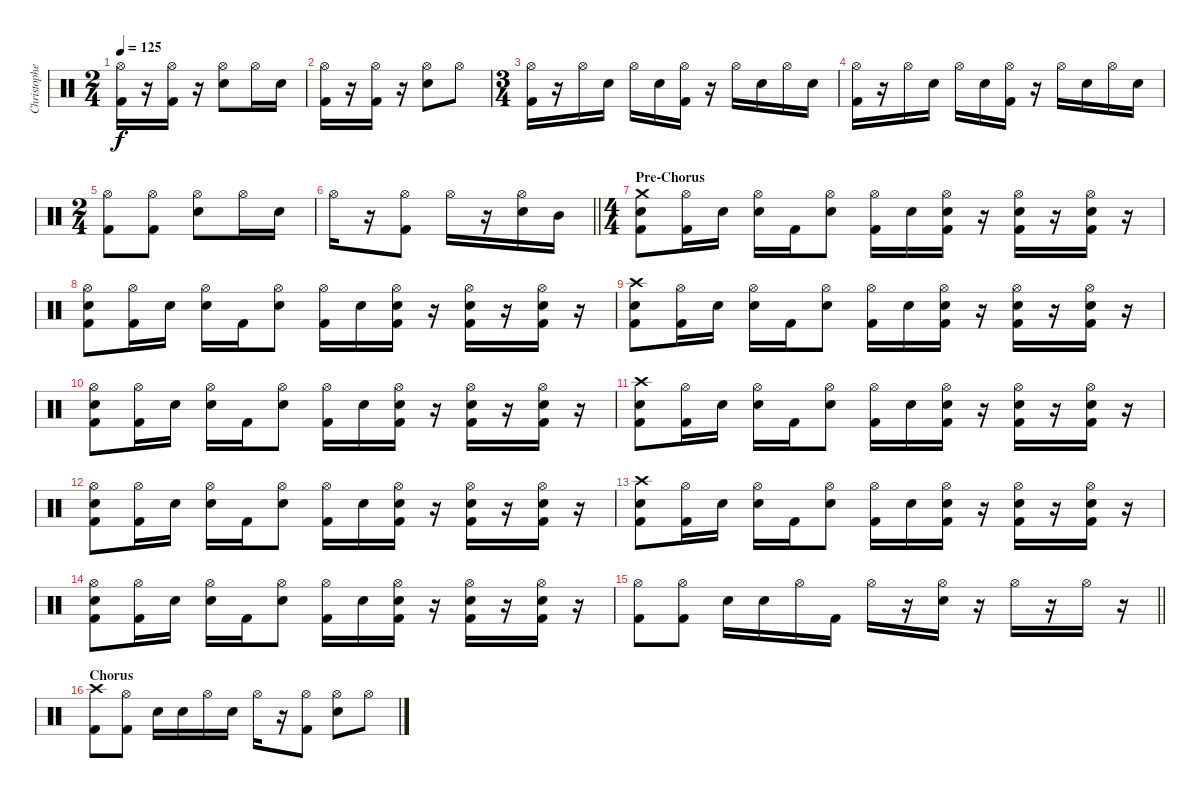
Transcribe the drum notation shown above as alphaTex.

\track ("Christopher - Drums" "Christophe") {instrument percussion}
\staff {score}
\articulation defaults
\ts (2 4)
\tempo 125
\clef neutral
\ks c
("Hi-Hat (open)" "Kick (hit) 2").16{dy f} r.16 ("Hi-Hat (open)" "Kick (hit) 2").16 r.16 ("Hi-Hat (open)" "Electric Snare (hit)").8 "Hi-Hat (open)".16 "Electric Snare (hit)".16 |
("Hi-Hat (open)" "Kick (hit) 2").16 r.16 ("Hi-Hat (open)" "Kick (hit) 2").16 r.16 ("Hi-Hat (open)" "Electric Snare (hit)").8 "Hi-Hat (open)".8 |
\ts (3 4)
("Hi-Hat (open)" "Kick (hit) 2").16 r.16 "Hi-Hat (open)".16 "Electric Snare (hit)".16 "Hi-Hat (open)".16 "Electric Snare (hit)".16 ("Hi-Hat (open)" "Kick (hit) 2").16 r.16 "Hi-Hat (open)".16 "Electric Snare (hit)".16 "Hi-Hat (open)".16 "Electric Snare (hit)".16 |
("Hi-Hat (open)" "Kick (hit) 2").16 r.16 "Hi-Hat (open)".16 "Electric Snare (hit)".16 "Hi-Hat (open)".16 "Electric Snare (hit)".16 ("Hi-Hat (open)" "Kick (hit) 2").16 r.16 "Hi-Hat (open)".16 "Electric Snare (hit)".16 "Hi-Hat (open)".16 "Electric Snare (hit)".16 |
\ts (2 4)
("Hi-Hat (open)" "Kick (hit) 2").8 ("Hi-Hat (open)" "Kick (hit) 2").8 ("Hi-Hat (open)" "Electric Snare (hit)").8 "Hi-Hat (open)".16 "Electric Snare (hit)".16 |
\barLineRight lightlight "Hi-Hat (open)".16
r.16 ("Hi-Hat (open)" "Kick (hit) 2").8 "Hi-Hat (open)".16 r.16 ("Hi-Hat (open)" "Electric Snare (hit)").16 "Mid Tom (hit)".16 |
\ts (4 4)
\section ("" "Pre-Chorus")
("Crash medium (hit)" "Electric Snare (hit)" "Kick (hit) 2").8 ("Hi-Hat (open)" "Kick (hit) 2").16 "Electric Snare (hit)".16 ("Hi-Hat (open)" "Electric Snare (hit)").16 "Kick (hit) 2".16 ("Hi-Hat (open)" "Electric Snare (hit)").8 ("Hi-Hat (open)" "Kick (hit) 2").16 "Electric Snare (hit)".16 ("Hi-Hat (open)" "Electric Snare (hit)" "Kick (hit) 2").16 r.16 ("Hi-Hat (open)" "Electric Snare (hit)" "Kick (hit) 2").16 r.16 ("Hi-Hat (open)" "Electric Snare (hit)" "Kick (hit) 2").16 r.16 |
("Hi-Hat (open)" "Electric Snare (hit)" "Kick (hit) 2").8 ("Hi-Hat (open)" "Kick (hit) 2").16 "Electric Snare (hit)".16 ("Hi-Hat (open)" "Electric Snare (hit)").16 "Kick (hit) 2".16 ("Hi-Hat (open)" "Electric Snare (hit)").8 ("Hi-Hat (open)" "Kick (hit) 2").16 "Electric Snare (hit)".16 ("Hi-Hat (open)" "Electric Snare (hit)" "Kick (hit) 2").16 r.16 ("Hi-Hat (open)" "Electric Snare (hit)" "Kick (hit) 2").16 r.16 ("Hi-Hat (open)" "Electric Snare (hit)" "Kick (hit) 2").16 r.16 |
("Crash high (hit)" "Electric Snare (hit)" "Kick (hit) 2").8 ("Hi-Hat (open)" "Kick (hit) 2").16 "Electric Snare (hit)".16 ("Hi-Hat (open)" "Electric Snare (hit)").16 "Kick (hit) 2".16 ("Hi-Hat (open)" "Electric Snare (hit)").8 ("Hi-Hat (open)" "Kick (hit) 2").16 "Electric Snare (hit)".16 ("Hi-Hat (open)" "Electric Snare (hit)" "Kick (hit) 2").16 r.16 ("Hi-Hat (open)" "Electric Snare (hit)" "Kick (hit) 2").16 r.16 ("Hi-Hat (open)" "Electric Snare (hit)" "Kick (hit) 2").16 r.16 |
("Hi-Hat (open)" "Electric Snare (hit)" "Kick (hit) 2").8 ("Hi-Hat (open)" "Kick (hit) 2").16 "Electric Snare (hit)".16 ("Hi-Hat (open)" "Electric Snare (hit)").16 "Kick (hit) 2".16 ("Hi-Hat (open)" "Electric Snare (hit)").8 ("Hi-Hat (open)" "Kick (hit) 2").16 "Electric Snare (hit)".16 ("Hi-Hat (open)" "Electric Snare (hit)" "Kick (hit) 2").16 r.16 ("Hi-Hat (open)" "Electric Snare (hit)" "Kick (hit) 2").16 r.16 ("Hi-Hat (open)" "Electric Snare (hit)" "Kick (hit) 2").16 r.16 |
("Crash high (hit)" "Electric Snare (hit)" "Kick (hit) 2").8 ("Hi-Hat (open)" "Kick (hit) 2").16 "Electric Snare (hit)".16 ("Hi-Hat (open)" "Electric Snare (hit)").16 "Kick (hit) 2".16 ("Hi-Hat (open)" "Electric Snare (hit)").8 ("Hi-Hat (open)" "Kick (hit) 2").16 "Electric Snare (hit)".16 ("Hi-Hat (open)" "Electric Snare (hit)" "Kick (hit) 2").16 r.16 ("Hi-Hat (open)" "Electric Snare (hit)" "Kick (hit) 2").16 r.16 ("Hi-Hat (open)" "Electric Snare (hit)" "Kick (hit) 2").16 r.16 |
("Hi-Hat (open)" "Electric Snare (hit)" "Kick (hit) 2").8 ("Hi-Hat (open)" "Kick (hit) 2").16 "Electric Snare (hit)".16 ("Hi-Hat (open)" "Electric Snare (hit)").16 "Kick (hit) 2".16 ("Hi-Hat (open)" "Electric Snare (hit)").8 ("Hi-Hat (open)" "Kick (hit) 2").16 "Electric Snare (hit)".16 ("Hi-Hat (open)" "Electric Snare (hit)" "Kick (hit) 2").16 r.16 ("Hi-Hat (open)" "Electric Snare (hit)" "Kick (hit) 2").16 r.16 ("Hi-Hat (open)" "Electric Snare (hit)" "Kick (hit) 2").16 r.16 |
("Crash high (hit)" "Electric Snare (hit)" "Kick (hit) 2").8 ("Hi-Hat (open)" "Kick (hit) 2").16 "Electric Snare (hit)".16 ("Hi-Hat (open)" "Electric Snare (hit)").16 "Kick (hit) 2".16 ("Hi-Hat (open)" "Electric Snare (hit)").8 ("Hi-Hat (open)" "Kick (hit) 2").16 "Electric Snare (hit)".16 ("Hi-Hat (open)" "Electric Snare (hit)" "Kick (hit) 2").16 r.16 ("Hi-Hat (open)" "Electric Snare (hit)" "Kick (hit) 2").16 r.16 ("Hi-Hat (open)" "Electric Snare (hit)" "Kick (hit) 2").16 r.16 |
("Hi-Hat (open)" "Electric Snare (hit)" "Kick (hit) 2").8 ("Hi-Hat (open)" "Kick (hit) 2").16 "Electric Snare (hit)".16 ("Hi-Hat (open)" "Electric Snare (hit)").16 "Kick (hit) 2".16 ("Hi-Hat (open)" "Electric Snare (hit)").8 ("Hi-Hat (open)" "Kick (hit) 2").16 "Electric Snare (hit)".16 ("Hi-Hat (open)" "Electric Snare (hit)" "Kick (hit) 2").16 r.16 ("Hi-Hat (open)" "Electric Snare (hit)" "Kick (hit) 2").16 r.16 ("Hi-Hat (open)" "Electric Snare (hit)" "Kick (hit) 2").16 r.16 |
\barLineRight lightlight
("Hi-Hat (open)" "Kick (hit) 2").8 ("Hi-Hat (open)" "Kick (hit) 2").8 "Electric Snare (hit)".16 "Electric Snare (hit)".16 "Hi-Hat (open)".16 "Kick (hit) 2".16 "Hi-Hat (open)".16 r.16 ("Hi-Hat (open)" "Electric Snare (hit)").16 r.16 "Hi-Hat (open)".16 r.16 "Hi-Hat (open)".16 r.16 |
\section ("" "Chorus")
("Crash high (hit)" "Kick (hit) 2").8 ("Hi-Hat (open)" "Kick (hit) 2").8 "Electric Snare (hit)".16 "Electric Snare (hit)".16 "Hi-Hat (open)".16 "Electric Snare (hit)".16 "Hi-Hat (open)".16 r.16 ("Hi-Hat (open)" "Kick (hit) 2").8 ("Hi-Hat (open)" "Electric Snare (hit)").8 "Hi-Hat (open)".8
